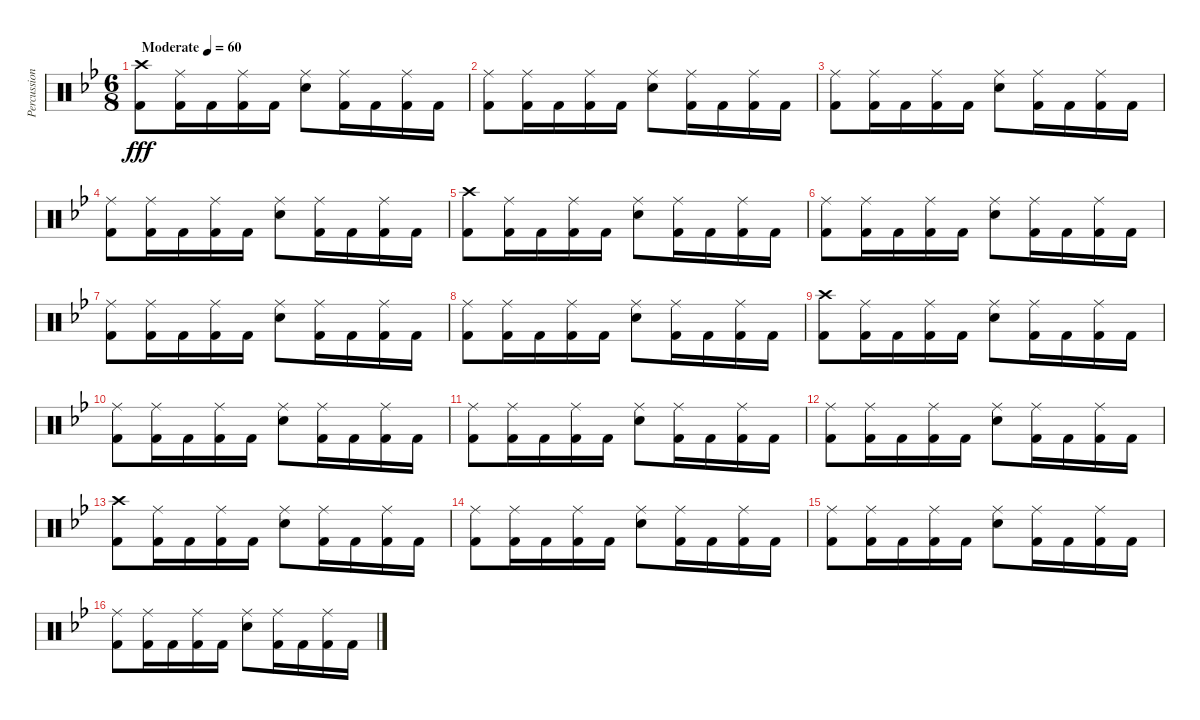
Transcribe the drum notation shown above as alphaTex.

\track ("Percussion" "Percussion") {instrument percussion}
\staff {score}
\articulation defaults
\ts (6 8)
\tempo (60 "Moderate")
\clef neutral
\ks gminor
("Crash high (hit)" "Kick (hit) 2").8{dy fff} ("Ride (middle)" "Kick (hit) 2").16 "Kick (hit) 2".16 ("Ride (middle)" "Kick (hit) 2").16 "Kick (hit) 2".16 ("Ride (middle)" "Electric Snare (hit)").8 ("Ride (middle)" "Kick (hit) 2").16 "Kick (hit) 2".16 ("Ride (middle)" "Kick (hit) 2").16 "Kick (hit) 2".16 |
("Ride (middle)" "Kick (hit) 2").8 ("Ride (middle)" "Kick (hit) 2").16 "Kick (hit) 2".16 ("Ride (middle)" "Kick (hit) 2").16 "Kick (hit) 2".16 ("Ride (middle)" "Electric Snare (hit)").8 ("Ride (middle)" "Kick (hit) 2").16 "Kick (hit) 2".16 ("Ride (middle)" "Kick (hit) 2").16 "Kick (hit) 2".16 |
("Ride (middle)" "Kick (hit) 2").8 ("Ride (middle)" "Kick (hit) 2").16 "Kick (hit) 2".16 ("Ride (middle)" "Kick (hit) 2").16 "Kick (hit) 2".16 ("Ride (middle)" "Electric Snare (hit)").8 ("Ride (middle)" "Kick (hit) 2").16 "Kick (hit) 2".16 ("Ride (middle)" "Kick (hit) 2").16 "Kick (hit) 2".16 |
("Ride (middle)" "Kick (hit) 2").8 ("Ride (middle)" "Kick (hit) 2").16 "Kick (hit) 2".16 ("Ride (middle)" "Kick (hit) 2").16 "Kick (hit) 2".16 ("Ride (middle)" "Electric Snare (hit)").8 ("Ride (middle)" "Kick (hit) 2").16 "Kick (hit) 2".16 ("Ride (middle)" "Kick (hit) 2").16 "Kick (hit) 2".16 |
("Crash high (hit)" "Kick (hit) 2").8 ("Ride (middle)" "Kick (hit) 2").16 "Kick (hit) 2".16 ("Ride (middle)" "Kick (hit) 2").16 "Kick (hit) 2".16 ("Ride (middle)" "Electric Snare (hit)").8 ("Ride (middle)" "Kick (hit) 2").16 "Kick (hit) 2".16 ("Ride (middle)" "Kick (hit) 2").16 "Kick (hit) 2".16 |
("Ride (middle)" "Kick (hit) 2").8 ("Ride (middle)" "Kick (hit) 2").16 "Kick (hit) 2".16 ("Ride (middle)" "Kick (hit) 2").16 "Kick (hit) 2".16 ("Ride (middle)" "Electric Snare (hit)").8 ("Ride (middle)" "Kick (hit) 2").16 "Kick (hit) 2".16 ("Ride (middle)" "Kick (hit) 2").16 "Kick (hit) 2".16 |
("Ride (middle)" "Kick (hit) 2").8 ("Ride (middle)" "Kick (hit) 2").16 "Kick (hit) 2".16 ("Ride (middle)" "Kick (hit) 2").16 "Kick (hit) 2".16 ("Ride (middle)" "Electric Snare (hit)").8 ("Ride (middle)" "Kick (hit) 2").16 "Kick (hit) 2".16 ("Ride (middle)" "Kick (hit) 2").16 "Kick (hit) 2".16 |
("Ride (middle)" "Kick (hit) 2").8 ("Ride (middle)" "Kick (hit) 2").16 "Kick (hit) 2".16 ("Ride (middle)" "Kick (hit) 2").16 "Kick (hit) 2".16 ("Ride (middle)" "Electric Snare (hit)").8 ("Ride (middle)" "Kick (hit) 2").16 "Kick (hit) 2".16 ("Ride (middle)" "Kick (hit) 2").16 "Kick (hit) 2".16 |
("Crash high (hit)" "Kick (hit) 2").8 ("Ride (middle)" "Kick (hit) 2").16 "Kick (hit) 2".16 ("Ride (middle)" "Kick (hit) 2").16 "Kick (hit) 2".16 ("Ride (middle)" "Electric Snare (hit)").8 ("Ride (middle)" "Kick (hit) 2").16 "Kick (hit) 2".16 ("Ride (middle)" "Kick (hit) 2").16 "Kick (hit) 2".16 |
("Ride (middle)" "Kick (hit) 2").8 ("Ride (middle)" "Kick (hit) 2").16 "Kick (hit) 2".16 ("Ride (middle)" "Kick (hit) 2").16 "Kick (hit) 2".16 ("Ride (middle)" "Electric Snare (hit)").8 ("Ride (middle)" "Kick (hit) 2").16 "Kick (hit) 2".16 ("Ride (middle)" "Kick (hit) 2").16 "Kick (hit) 2".16 |
("Ride (middle)" "Kick (hit) 2").8 ("Ride (middle)" "Kick (hit) 2").16 "Kick (hit) 2".16 ("Ride (middle)" "Kick (hit) 2").16 "Kick (hit) 2".16 ("Ride (middle)" "Electric Snare (hit)").8 ("Ride (middle)" "Kick (hit) 2").16 "Kick (hit) 2".16 ("Ride (middle)" "Kick (hit) 2").16 "Kick (hit) 2".16 |
("Ride (middle)" "Kick (hit) 2").8 ("Ride (middle)" "Kick (hit) 2").16 "Kick (hit) 2".16 ("Ride (middle)" "Kick (hit) 2").16 "Kick (hit) 2".16 ("Ride (middle)" "Electric Snare (hit)").8 ("Ride (middle)" "Kick (hit) 2").16 "Kick (hit) 2".16 ("Ride (middle)" "Kick (hit) 2").16 "Kick (hit) 2".16 |
("Crash high (hit)" "Kick (hit) 2").8 ("Ride (middle)" "Kick (hit) 2").16 "Kick (hit) 2".16 ("Ride (middle)" "Kick (hit) 2").16 "Kick (hit) 2".16 ("Ride (middle)" "Electric Snare (hit)").8 ("Ride (middle)" "Kick (hit) 2").16 "Kick (hit) 2".16 ("Ride (middle)" "Kick (hit) 2").16 "Kick (hit) 2".16 |
("Ride (middle)" "Kick (hit) 2").8 ("Ride (middle)" "Kick (hit) 2").16 "Kick (hit) 2".16 ("Ride (middle)" "Kick (hit) 2").16 "Kick (hit) 2".16 ("Ride (middle)" "Electric Snare (hit)").8 ("Ride (middle)" "Kick (hit) 2").16 "Kick (hit) 2".16 ("Ride (middle)" "Kick (hit) 2").16 "Kick (hit) 2".16 |
("Ride (middle)" "Kick (hit) 2").8 ("Ride (middle)" "Kick (hit) 2").16 "Kick (hit) 2".16 ("Ride (middle)" "Kick (hit) 2").16 "Kick (hit) 2".16 ("Ride (middle)" "Electric Snare (hit)").8 ("Ride (middle)" "Kick (hit) 2").16 "Kick (hit) 2".16 ("Ride (middle)" "Kick (hit) 2").16 "Kick (hit) 2".16 |
("Ride (middle)" "Kick (hit) 2").8 ("Ride (middle)" "Kick (hit) 2").16 "Kick (hit) 2".16 ("Ride (middle)" "Kick (hit) 2").16 "Kick (hit) 2".16 ("Ride (middle)" "Electric Snare (hit)").8 ("Ride (middle)" "Kick (hit) 2").16 "Kick (hit) 2".16 ("Ride (middle)" "Kick (hit) 2").16 "Kick (hit) 2".16
